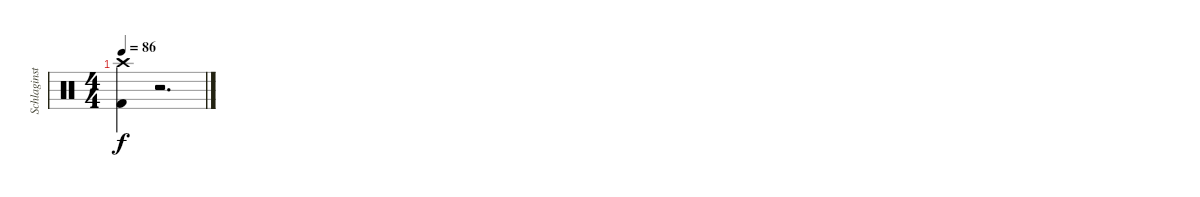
\track ("Schlaginstrumente - Auswahl" "Schlaginst") {instrument percussion}
\staff {score}
\articulation defaults
\ts (4 4)
\tempo 86
\clef neutral
\ks c
("Crash high (hit)" "Kick (hit) 2").4{dy f} r.2{d}
